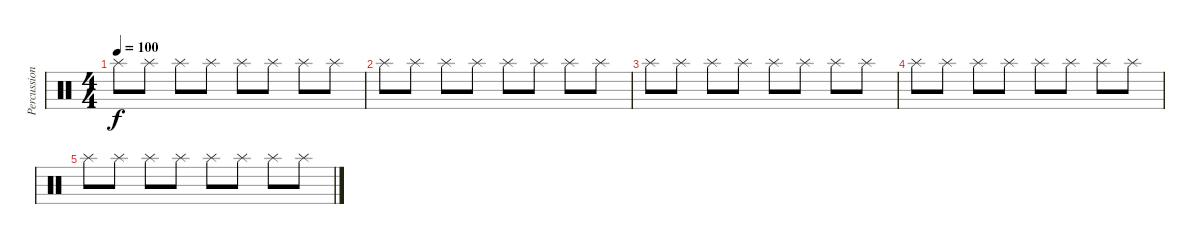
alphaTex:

\track ("Percussions" "Percussion") {instrument percussion}
\staff {score}
\articulation defaults
\ts (4 4)
\tempo 100
\clef neutral
\ks c "Splash (hit)".8{dy f} "Splash (hit)".8 "Splash (hit)".8 "Splash (hit)".8 "Splash (hit)".8 "Splash (hit)".8 "Splash (hit)".8 "Splash (hit)".8
|
"Splash (hit)".8 "Splash (hit)".8 "Splash (hit)".8 "Splash (hit)".8 "Splash (hit)".8 "Splash (hit)".8 "Splash (hit)".8 "Splash (hit)".8 |
"Splash (hit)".8 "Splash (hit)".8 "Splash (hit)".8 "Splash (hit)".8 "Splash (hit)".8 "Splash (hit)".8 "Splash (hit)".8 "Splash (hit)".8 |
"Splash (hit)".8 "Splash (hit)".8 "Splash (hit)".8 "Splash (hit)".8 "Splash (hit)".8 "Splash (hit)".8 "Splash (hit)".8 "Splash (hit)".8 |
"Splash (hit)".8 "Splash (hit)".8 "Splash (hit)".8 "Splash (hit)".8 "Splash (hit)".8 "Splash (hit)".8 "Splash (hit)".8 "Splash (hit)".8
